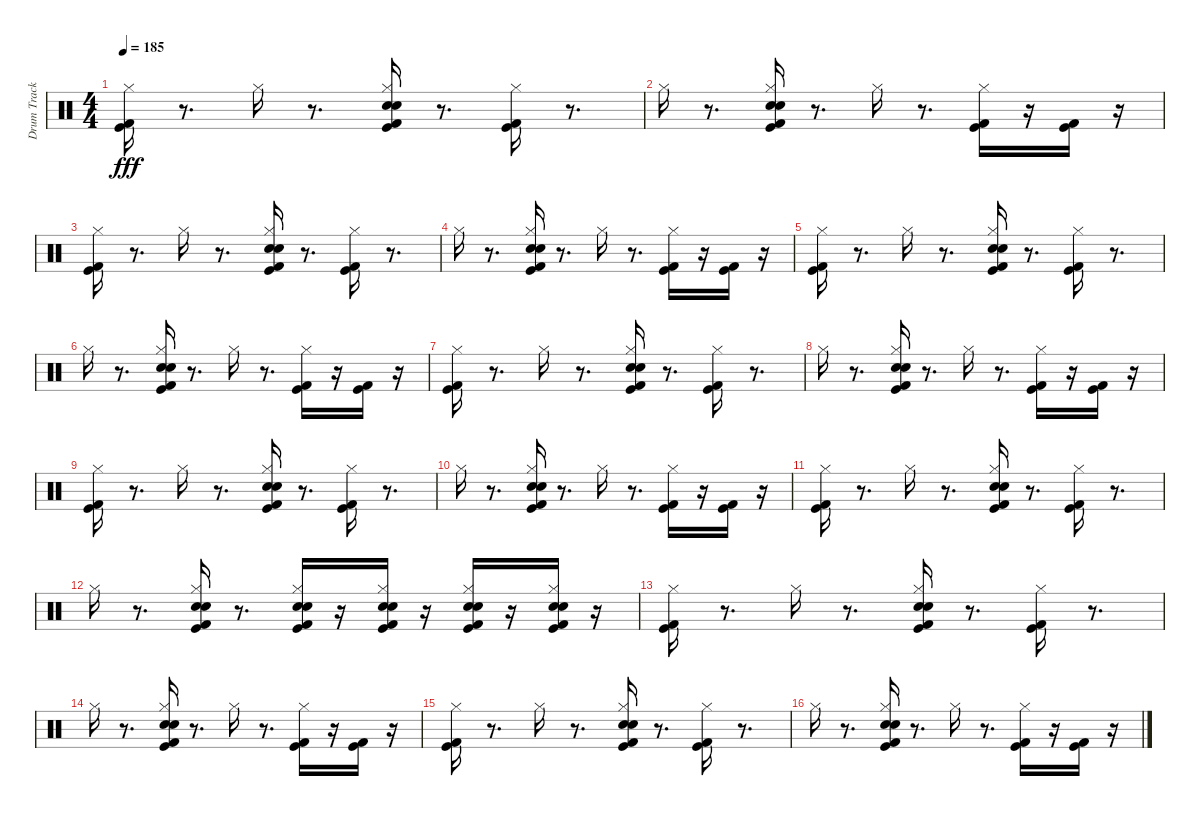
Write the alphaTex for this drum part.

\track ("Drum Track" "Drum Track") {instrument percussion}
\staff {score}
\articulation defaults
\ts (4 4)
\tempo 185
\clef neutral
\ks c
("Kick (hit)" "Kick (hit) 2" "Hi-Hat (closed)").16{dy fff} r.8{d} "Hi-Hat (closed)".16 r.8{d} ("Snare (hit) 2" "Electric Snare (hit)" "Kick (hit) 2" "Kick (hit)" "Hi-Hat (closed)").16 r.8{d} ("Kick (hit)" "Kick (hit) 2" "Hi-Hat (closed)").16 r.8{d} |
"Hi-Hat (closed)".16 r.8{d} ("Hi-Hat (closed)" "Kick (hit)" "Kick (hit) 2" "Electric Snare (hit)" "Snare (hit) 2").16 r.8{d} "Hi-Hat (closed)".16 r.8{d} ("Hi-Hat (closed)" "Kick (hit)" "Kick (hit) 2").16 r.16 ("Kick (hit) 2" "Kick (hit)").16 r.16 |
("Kick (hit)" "Kick (hit) 2" "Hi-Hat (closed)").16 r.8{d} "Hi-Hat (closed)".16 r.8{d} ("Snare (hit) 2" "Electric Snare (hit)" "Kick (hit) 2" "Kick (hit)" "Hi-Hat (closed)").16 r.8{d} ("Kick (hit)" "Kick (hit) 2" "Hi-Hat (closed)").16 r.8{d} |
"Hi-Hat (closed)".16 r.8{d} ("Hi-Hat (closed)" "Kick (hit)" "Kick (hit) 2" "Electric Snare (hit)" "Snare (hit) 2").16 r.8{d} "Hi-Hat (closed)".16 r.8{d} ("Hi-Hat (closed)" "Kick (hit)" "Kick (hit) 2").16 r.16 ("Kick (hit) 2" "Kick (hit)").16 r.16 |
("Hi-Hat (closed)" "Kick (hit) 2" "Kick (hit)").16 r.8{d} "Hi-Hat (closed)".16 r.8{d} ("Snare (hit) 2" "Electric Snare (hit)" "Kick (hit) 2" "Kick (hit)" "Hi-Hat (closed)").16 r.8{d} ("Kick (hit)" "Kick (hit) 2" "Hi-Hat (closed)").16 r.8{d} |
"Hi-Hat (closed)".16 r.8{d} ("Hi-Hat (closed)" "Kick (hit)" "Kick (hit) 2" "Electric Snare (hit)" "Snare (hit) 2").16 r.8{d} "Hi-Hat (closed)".16 r.8{d} ("Hi-Hat (closed)" "Kick (hit)" "Kick (hit) 2").16 r.16 ("Kick (hit) 2" "Kick (hit)").16 r.16 |
("Hi-Hat (closed)" "Kick (hit) 2" "Kick (hit)").16 r.8{d} "Hi-Hat (closed)".16 r.8{d} ("Snare (hit) 2" "Electric Snare (hit)" "Kick (hit) 2" "Kick (hit)" "Hi-Hat (closed)").16 r.8{d} ("Kick (hit)" "Kick (hit) 2" "Hi-Hat (closed)").16 r.8{d} |
"Hi-Hat (closed)".16 r.8{d} ("Hi-Hat (closed)" "Kick (hit)" "Kick (hit) 2" "Electric Snare (hit)" "Snare (hit) 2").16 r.8{d} "Hi-Hat (closed)".16 r.8{d} ("Hi-Hat (closed)" "Kick (hit)" "Kick (hit) 2").16 r.16 ("Kick (hit) 2" "Kick (hit)").16 r.16 |
("Hi-Hat (closed)" "Kick (hit) 2" "Kick (hit)").16 r.8{d} "Hi-Hat (closed)".16 r.8{d} ("Snare (hit) 2" "Electric Snare (hit)" "Kick (hit) 2" "Kick (hit)" "Hi-Hat (closed)").16 r.8{d} ("Kick (hit)" "Kick (hit) 2" "Hi-Hat (closed)").16 r.8{d} |
"Hi-Hat (closed)".16 r.8{d} ("Hi-Hat (closed)" "Kick (hit)" "Kick (hit) 2" "Electric Snare (hit)" "Snare (hit) 2").16 r.8{d} "Hi-Hat (closed)".16 r.8{d} ("Hi-Hat (closed)" "Kick (hit)" "Kick (hit) 2").16 r.16 ("Kick (hit) 2" "Kick (hit)").16 r.16 |
("Hi-Hat (closed)" "Kick (hit) 2" "Kick (hit)").16 r.8{d} "Hi-Hat (closed)".16 r.8{d} ("Snare (hit) 2" "Electric Snare (hit)" "Kick (hit) 2" "Kick (hit)" "Hi-Hat (closed)").16 r.8{d} ("Kick (hit)" "Kick (hit) 2" "Hi-Hat (closed)").16 r.8{d} |
"Hi-Hat (closed)".16 r.8{d} ("Hi-Hat (closed)" "Kick (hit)" "Kick (hit) 2" "Electric Snare (hit)" "Snare (hit) 2").16 r.8{d} ("Hi-Hat (closed)" "Electric Snare (hit)" "Snare (hit) 2" "Kick (hit) 2" "Kick (hit)").16 r.16 ("Electric Snare (hit)" "Snare (hit) 2" "Kick (hit) 2" "Kick (hit)" "Hi-Hat (closed)").16 r.16 ("Hi-Hat (closed)" "Snare (hit) 2" "Electric Snare (hit)" "Kick (hit)" "Kick (hit) 2").16 r.16 ("Kick (hit) 2" "Kick (hit)" "Electric Snare (hit)" "Snare (hit) 2" "Hi-Hat (closed)").16 r.16 |
("Hi-Hat (closed)" "Kick (hit) 2" "Kick (hit)").16 r.8{d} "Hi-Hat (closed)".16 r.8{d} ("Snare (hit) 2" "Electric Snare (hit)" "Kick (hit) 2" "Kick (hit)" "Hi-Hat (closed)").16 r.8{d} ("Kick (hit)" "Kick (hit) 2" "Hi-Hat (closed)").16 r.8{d} |
"Hi-Hat (closed)".16 r.8{d} ("Hi-Hat (closed)" "Kick (hit)" "Kick (hit) 2" "Electric Snare (hit)" "Snare (hit) 2").16 r.8{d} "Hi-Hat (closed)".16 r.8{d} ("Hi-Hat (closed)" "Kick (hit)" "Kick (hit) 2").16 r.16 ("Kick (hit) 2" "Kick (hit)").16 r.16 |
("Hi-Hat (closed)" "Kick (hit) 2" "Kick (hit)").16 r.8{d} "Hi-Hat (closed)".16 r.8{d} ("Snare (hit) 2" "Electric Snare (hit)" "Kick (hit) 2" "Kick (hit)" "Hi-Hat (closed)").16 r.8{d} ("Kick (hit)" "Kick (hit) 2" "Hi-Hat (closed)").16 r.8{d} |
"Hi-Hat (closed)".16 r.8{d} ("Hi-Hat (closed)" "Kick (hit)" "Kick (hit) 2" "Electric Snare (hit)" "Snare (hit) 2").16 r.8{d} "Hi-Hat (closed)".16 r.8{d} ("Hi-Hat (closed)" "Kick (hit)" "Kick (hit) 2").16 r.16 ("Kick (hit) 2" "Kick (hit)").16 r.16
